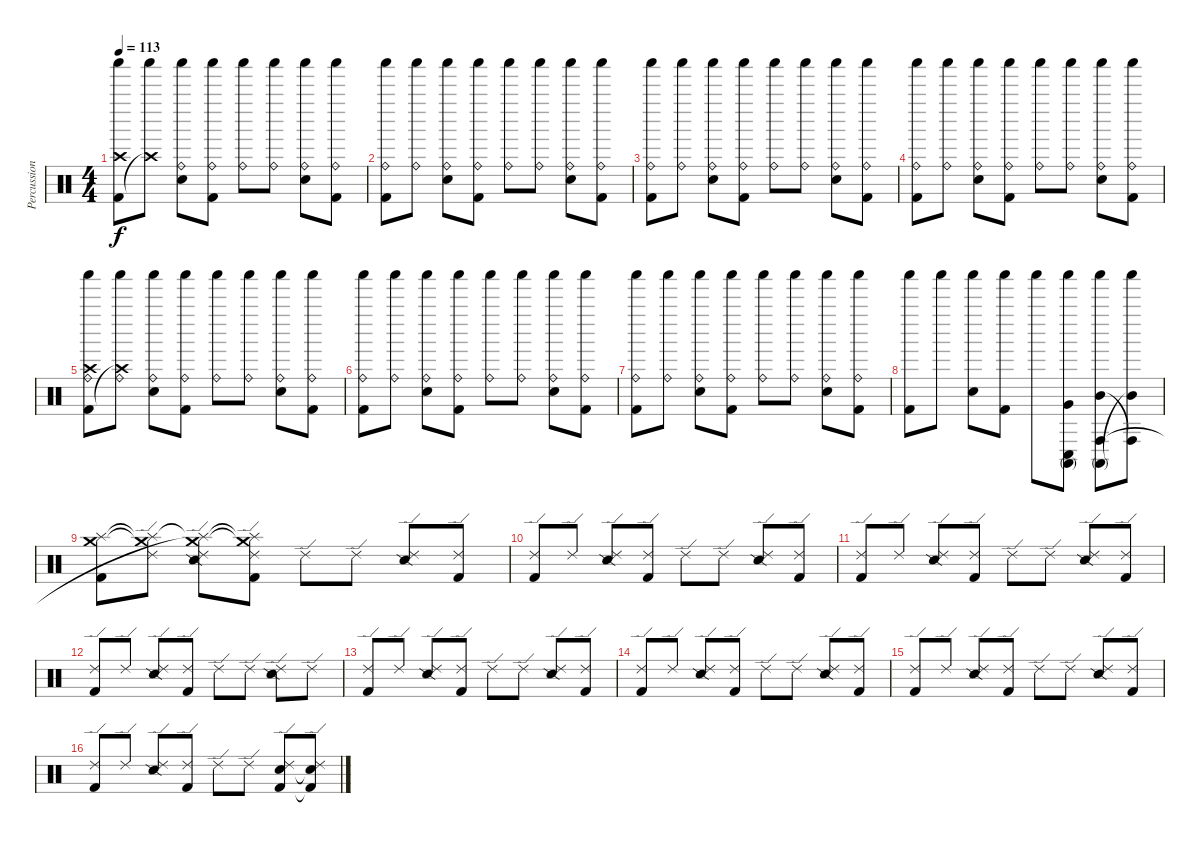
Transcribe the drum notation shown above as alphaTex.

\track ("Percussion" "Percussion") {instrument percussion}
\staff {score}
\articulation defaults
\ts (4 4)
\tempo 113
\clef neutral
\ks c
("Shaker (hit)" "Kick (hit) 2" "Crash high (hit)").8{dy f} ("Shaker (hit)" "Crash high (hit)"{t}).8 ("Shaker (hit)" "Ride (bell)" "Snare (hit) 2").8 ("Shaker (hit)" "Ride (bell)" "Kick (hit) 2").8 ("Shaker (hit)" "Ride (bell)").8 ("Shaker (hit)" "Ride (bell)").8 ("Shaker (hit)" "Ride (bell)" "Snare (hit) 2").8 ("Shaker (hit)" "Ride (bell)" "Kick (hit) 2").8 |
("Shaker (hit)" "Ride (bell)" "Kick (hit) 2").8 ("Shaker (hit)" "Ride (bell)").8 ("Shaker (hit)" "Ride (bell)" "Snare (hit) 2").8 ("Shaker (hit)" "Ride (bell)" "Kick (hit) 2").8 ("Shaker (hit)" "Ride (bell)").8 ("Shaker (hit)" "Ride (bell)").8 ("Shaker (hit)" "Ride (bell)" "Snare (hit) 2").8 ("Shaker (hit)" "Ride (bell)" "Kick (hit) 2").8 |
("Shaker (hit)" "Ride (bell)" "Kick (hit) 2").8 ("Shaker (hit)" "Ride (bell)").8 ("Shaker (hit)" "Ride (bell)" "Snare (hit) 2").8 ("Shaker (hit)" "Ride (bell)" "Kick (hit) 2").8 ("Shaker (hit)" "Ride (bell)").8 ("Shaker (hit)" "Ride (bell)").8 ("Shaker (hit)" "Ride (bell)" "Snare (hit) 2").8 ("Shaker (hit)" "Ride (bell)" "Kick (hit) 2").8 |
("Shaker (hit)" "Ride (bell)" "Kick (hit) 2").8 ("Shaker (hit)" "Ride (bell)").8 ("Shaker (hit)" "Ride (bell)" "Snare (hit) 2").8 ("Shaker (hit)" "Ride (bell)" "Kick (hit) 2").8 ("Shaker (hit)" "Ride (bell)").8 ("Shaker (hit)" "Ride (bell)").8 ("Shaker (hit)" "Ride (bell)" "Snare (hit) 2").8 ("Shaker (hit)" "Ride (bell)" "Kick (hit) 2").8 |
("Shaker (hit)" "Ride (bell)" "Kick (hit) 2" "Crash high (hit)").8 ("Shaker (hit)" "Ride (bell)" "Crash high (hit)"{t}).8 ("Shaker (hit)" "Ride (bell)" "Snare (hit) 2").8 ("Shaker (hit)" "Ride (bell)" "Kick (hit) 2").8 ("Shaker (hit)" "Ride (bell)").8 ("Shaker (hit)" "Ride (bell)").8 ("Shaker (hit)" "Ride (bell)" "Snare (hit) 2").8 ("Shaker (hit)" "Ride (bell)" "Kick (hit) 2").8 |
("Shaker (hit)" "Ride (bell)" "Kick (hit) 2").8 ("Shaker (hit)" "Ride (bell)").8 ("Shaker (hit)" "Ride (bell)" "Snare (hit) 2").8 ("Shaker (hit)" "Ride (bell)" "Kick (hit) 2").8 ("Shaker (hit)" "Ride (bell)").8 ("Shaker (hit)" "Ride (bell)").8 ("Shaker (hit)" "Ride (bell)" "Snare (hit) 2").8 ("Shaker (hit)" "Ride (bell)" "Kick (hit) 2").8 |
("Shaker (hit)" "Ride (bell)" "Kick (hit) 2").8 ("Shaker (hit)" "Ride (bell)").8 ("Shaker (hit)" "Ride (bell)" "Snare (hit) 2").8 ("Shaker (hit)" "Ride (bell)" "Kick (hit) 2").8 ("Shaker (hit)" "Ride (bell)").8 ("Shaker (hit)" "Ride (bell)").8 ("Shaker (hit)" "Ride (bell)" "Snare (hit) 2").8 ("Shaker (hit)" "Ride (bell)" "Kick (hit) 2").8 |
("Shaker (hit)" "Kick (hit) 2").8 "Shaker (hit)".8 ("Shaker (hit)" "Snare (hit) 2").8 ("Shaker (hit)" "Kick (hit) 2").8 "Shaker (hit)".8 ("Shaker (hit)" "Conga high (mute)" "Very Low Tom (hit)" "Conga low (hit)").8 ("Shaker (hit)" "Conga high (mute)" "Mid Tom (hit)" "Conga high (hit)").8 ("Shaker (hit)" "Mid Tom (hit)"{t} "Conga high (hit)"{t}).8 |
("Splash (hit)" "Kick (hit) 2" "Crash medium (hit)").8 ("Splash (hit)"{t} "Ride (edge) 2" "Crash medium (hit)"{t}).8 ("Splash (hit)"{t} "Ride (edge) 2" "Snare (side stick) 2" "Crash medium (hit)"{t}).8 ("Splash (hit)"{t} "Ride (edge) 2" "Kick (hit) 2" "Crash medium (hit)"{t}).8 "Ride (edge) 2".8 "Ride (edge) 2".8 ("Ride (edge) 2" "Snare (side stick) 2").8 ("Ride (edge) 2" "Kick (hit) 2").8 |
("Ride (edge) 2" "Kick (hit) 2").8 "Ride (edge) 2".8 ("Ride (edge) 2" "Snare (side stick) 2").8 ("Ride (edge) 2" "Kick (hit) 2").8 "Ride (edge) 2".8 "Ride (edge) 2".8 ("Ride (edge) 2" "Snare (side stick) 2").8 ("Ride (edge) 2" "Kick (hit) 2").8 |
("Ride (edge) 2" "Kick (hit) 2").8 "Ride (edge) 2".8 ("Ride (edge) 2" "Snare (side stick) 2").8 ("Ride (edge) 2" "Kick (hit) 2").8 "Ride (edge) 2".8 "Ride (edge) 2".8 ("Ride (edge) 2" "Snare (side stick) 2").8 ("Ride (edge) 2" "Kick (hit) 2").8 |
("Ride (edge) 2" "Kick (hit) 2").8 "Ride (edge) 2".8 ("Ride (edge) 2" "Snare (side stick) 2").8 ("Ride (edge) 2" "Kick (hit) 2").8 "Ride (edge) 2".8 "Ride (edge) 2".8 ("Ride (edge) 2" "Snare (side stick) 2").8 "Ride (edge) 2".8 |
("Ride (edge) 2" "Kick (hit) 2").8 "Ride (edge) 2".8 ("Ride (edge) 2" "Snare (side stick) 2").8 ("Ride (edge) 2" "Kick (hit) 2").8 "Ride (edge) 2".8 "Ride (edge) 2".8 ("Ride (edge) 2" "Snare (side stick) 2").8 ("Ride (edge) 2" "Kick (hit) 2").8 |
("Ride (edge) 2" "Kick (hit) 2").8 "Ride (edge) 2".8 ("Ride (edge) 2" "Snare (side stick) 2").8 ("Ride (edge) 2" "Kick (hit) 2").8 "Ride (edge) 2".8 "Ride (edge) 2".8 ("Ride (edge) 2" "Snare (side stick) 2").8 ("Ride (edge) 2" "Kick (hit) 2").8 |
("Ride (edge) 2" "Kick (hit) 2").8 "Ride (edge) 2".8 ("Ride (edge) 2" "Snare (side stick) 2").8 ("Ride (edge) 2" "Kick (hit) 2").8 "Ride (edge) 2".8 "Ride (edge) 2".8 ("Ride (edge) 2" "Snare (side stick) 2").8 ("Ride (edge) 2" "Kick (hit) 2").8 |
("Ride (edge) 2" "Kick (hit) 2").8 "Ride (edge) 2".8 ("Ride (edge) 2" "Snare (side stick) 2").8 ("Ride (edge) 2" "Kick (hit) 2").8 "Ride (edge) 2".8 "Ride (edge) 2".8 ("Ride (edge) 2" "Kick (hit) 2" "Electric Snare (hit)").8 ("Ride (edge) 2" "Kick (hit) 2"{t} "Electric Snare (hit)"{t}).8
